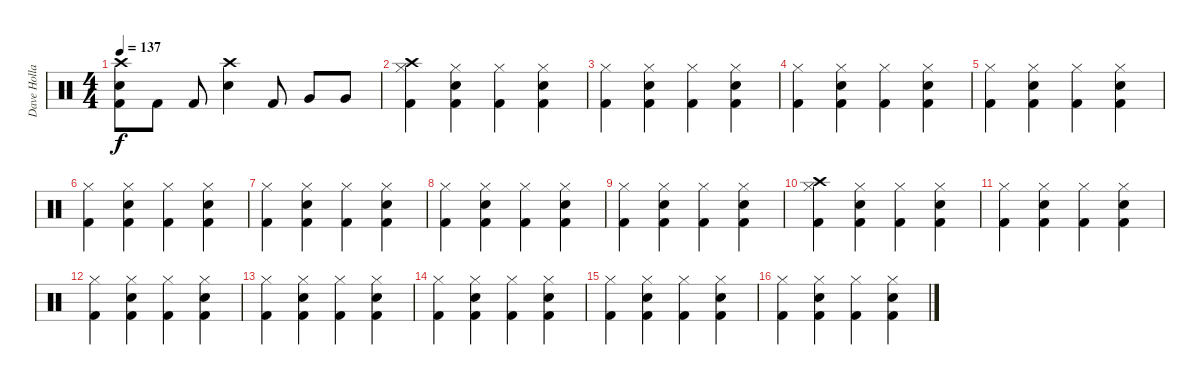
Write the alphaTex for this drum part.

\track ("Dave Holland" "Dave Holla") {instrument percussion}
\staff {score}
\articulation defaults
\ts (4 4)
\tempo 137
\clef neutral
\ks c
("Crash high (hit)" "Snare (hit) 2" "Kick (hit) 2").8{dy f} "Kick (hit) 2".8 "Kick (hit) 2".8 ("Crash high (hit)" "Snare (hit) 2").4 "Kick (hit) 2".8 "Very Low Tom (hit)".8 "Very Low Tom (hit)".8 |
("Crash high (hit)" "Hi-Hat (closed)" "Kick (hit) 2").4 ("Hi-Hat (closed)" "Snare (hit) 2" "Kick (hit) 2").4 ("Hi-Hat (closed)" "Kick (hit) 2").4 ("Hi-Hat (closed)" "Snare (hit) 2" "Kick (hit) 2").4 |
("Hi-Hat (closed)" "Kick (hit) 2").4 ("Hi-Hat (closed)" "Snare (hit) 2" "Kick (hit) 2").4 ("Hi-Hat (closed)" "Kick (hit) 2").4 ("Hi-Hat (closed)" "Snare (hit) 2" "Kick (hit) 2").4 |
("Hi-Hat (closed)" "Kick (hit) 2").4 ("Hi-Hat (closed)" "Snare (hit) 2" "Kick (hit) 2").4 ("Hi-Hat (closed)" "Kick (hit) 2").4 ("Hi-Hat (closed)" "Snare (hit) 2" "Kick (hit) 2").4 |
("Hi-Hat (closed)" "Kick (hit) 2").4 ("Hi-Hat (closed)" "Snare (hit) 2" "Kick (hit) 2").4 ("Hi-Hat (closed)" "Kick (hit) 2").4 ("Hi-Hat (closed)" "Snare (hit) 2" "Kick (hit) 2").4 |
("Hi-Hat (closed)" "Kick (hit) 2").4 ("Hi-Hat (closed)" "Snare (hit) 2" "Kick (hit) 2").4 ("Hi-Hat (closed)" "Kick (hit) 2").4 ("Hi-Hat (closed)" "Snare (hit) 2" "Kick (hit) 2").4 |
("Hi-Hat (closed)" "Kick (hit) 2").4 ("Hi-Hat (closed)" "Snare (hit) 2" "Kick (hit) 2").4 ("Hi-Hat (closed)" "Kick (hit) 2").4 ("Hi-Hat (closed)" "Snare (hit) 2" "Kick (hit) 2").4 |
("Hi-Hat (closed)" "Kick (hit) 2").4 ("Hi-Hat (closed)" "Snare (hit) 2" "Kick (hit) 2").4 ("Hi-Hat (closed)" "Kick (hit) 2").4 ("Hi-Hat (closed)" "Snare (hit) 2" "Kick (hit) 2").4 |
("Hi-Hat (closed)" "Kick (hit) 2").4 ("Hi-Hat (closed)" "Snare (hit) 2" "Kick (hit) 2").4 ("Hi-Hat (closed)" "Kick (hit) 2").4 ("Hi-Hat (closed)" "Snare (hit) 2" "Kick (hit) 2").4 |
("Crash high (hit)" "Hi-Hat (closed)" "Kick (hit) 2").4 ("Hi-Hat (closed)" "Snare (hit) 2" "Kick (hit) 2").4 ("Hi-Hat (closed)" "Kick (hit) 2").4 ("Hi-Hat (closed)" "Snare (hit) 2" "Kick (hit) 2").4 |
("Hi-Hat (closed)" "Kick (hit) 2").4 ("Hi-Hat (closed)" "Snare (hit) 2" "Kick (hit) 2").4 ("Hi-Hat (closed)" "Kick (hit) 2").4 ("Hi-Hat (closed)" "Snare (hit) 2" "Kick (hit) 2").4 |
("Hi-Hat (closed)" "Kick (hit) 2").4 ("Hi-Hat (closed)" "Snare (hit) 2" "Kick (hit) 2").4 ("Hi-Hat (closed)" "Kick (hit) 2").4 ("Hi-Hat (closed)" "Snare (hit) 2" "Kick (hit) 2").4 |
("Hi-Hat (closed)" "Kick (hit) 2").4 ("Hi-Hat (closed)" "Snare (hit) 2" "Kick (hit) 2").4 ("Hi-Hat (closed)" "Kick (hit) 2").4 ("Hi-Hat (closed)" "Snare (hit) 2" "Kick (hit) 2").4 |
("Hi-Hat (closed)" "Kick (hit) 2").4 ("Hi-Hat (closed)" "Snare (hit) 2" "Kick (hit) 2").4 ("Hi-Hat (closed)" "Kick (hit) 2").4 ("Hi-Hat (closed)" "Snare (hit) 2" "Kick (hit) 2").4 |
("Hi-Hat (closed)" "Kick (hit) 2").4 ("Hi-Hat (closed)" "Snare (hit) 2" "Kick (hit) 2").4 ("Hi-Hat (closed)" "Kick (hit) 2").4 ("Hi-Hat (closed)" "Snare (hit) 2" "Kick (hit) 2").4 |
("Hi-Hat (closed)" "Kick (hit) 2").4 ("Hi-Hat (closed)" "Snare (hit) 2" "Kick (hit) 2").4 ("Hi-Hat (closed)" "Kick (hit) 2").4 ("Hi-Hat (closed)" "Snare (hit) 2" "Kick (hit) 2").4
